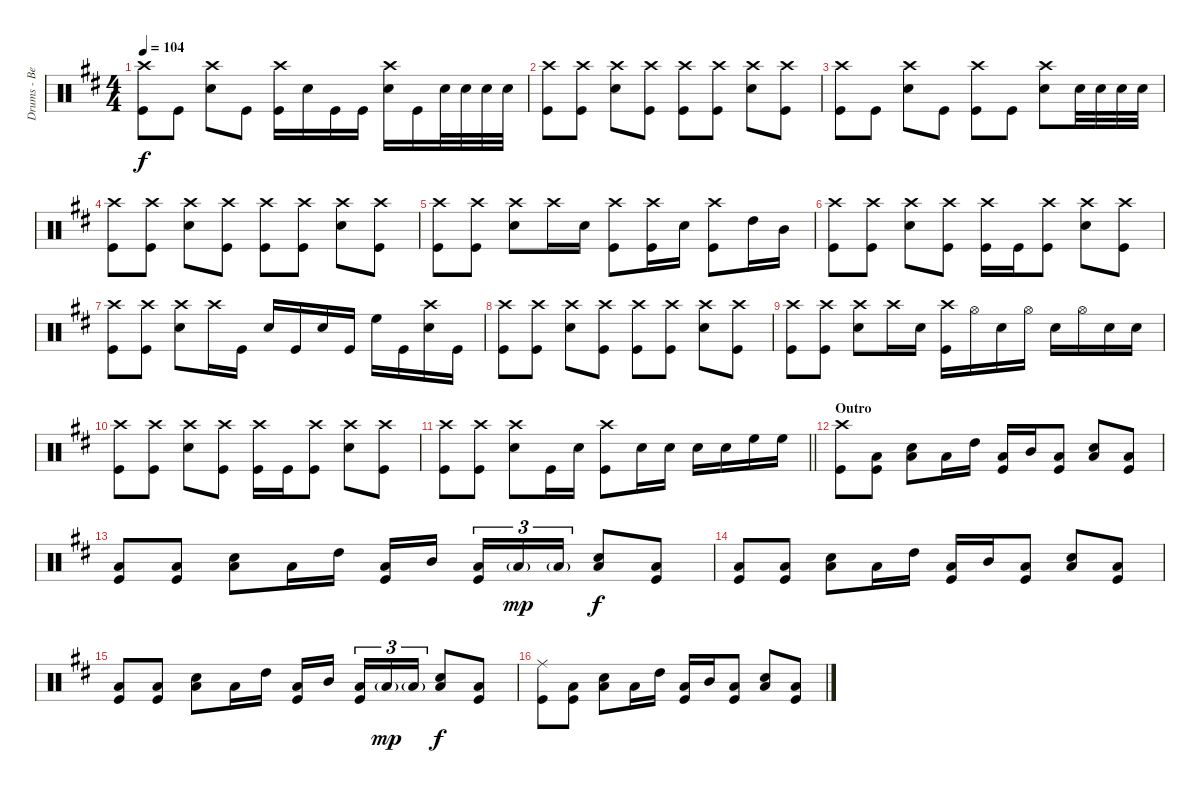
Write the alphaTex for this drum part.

\track ("Drums - Ben Johnston" "Drums - Be") {instrument percussion}
\staff {score}
\articulation defaults
\ts (4 4)
\tempo 104
\clef neutral
\ks d
("Crash high (hit)" "Kick (hit)").8{dy f} "Kick (hit)".8 ("Crash high (hit)" "Snare (hit) 2").8 "Kick (hit)".8 ("Crash high (hit)" "Kick (hit)").16 "Snare (hit) 2".16 "Kick (hit)".16 "Kick (hit)".16 ("Crash high (hit)" "Snare (hit) 2").16 "Kick (hit)".16 "Snare (hit) 2".32 "Snare (hit) 2".32 "Snare (hit) 2".32 "Snare (hit) 2".32 |
("Crash high (hit)" "Kick (hit)").8 ("Crash high (hit)" "Kick (hit)").8 ("Crash high (hit)" "Snare (hit) 2").8 ("Crash high (hit)" "Kick (hit)").8 ("Crash high (hit)" "Kick (hit)").8 ("Crash high (hit)" "Kick (hit)").8 ("Crash high (hit)" "Snare (hit) 2").8 ("Crash high (hit)" "Kick (hit)").8 |
("Crash high (hit)" "Kick (hit)").8 "Kick (hit)".8 ("Crash high (hit)" "Snare (hit) 2").8 "Kick (hit)".8 ("Crash high (hit)" "Kick (hit)").8 "Kick (hit)".8 ("Crash high (hit)" "Snare (hit) 2").8 "Snare (hit) 2".32 "Snare (hit) 2".32 "Snare (hit) 2".32 "Snare (hit) 2".32 |
("Crash high (hit)" "Kick (hit)").8 ("Crash high (hit)" "Kick (hit)").8 ("Crash high (hit)" "Snare (hit) 2").8 ("Crash high (hit)" "Kick (hit)").8 ("Crash high (hit)" "Kick (hit)").8 ("Crash high (hit)" "Kick (hit)").8 ("Crash high (hit)" "Snare (hit) 2").8 ("Crash high (hit)" "Kick (hit)").8 |
("Crash high (hit)" "Kick (hit)").8 ("Crash high (hit)" "Kick (hit)").8 ("Crash high (hit)" "Snare (hit) 2").8 "Crash high (hit)".16 "Snare (hit) 2".16 ("Crash high (hit)" "Kick (hit)").8 ("Crash high (hit)" "Kick (hit)").16 "Snare (hit) 2".16 ("Crash high (hit)" "Kick (hit)").8 "High Tom (hit)".16 "Mid Tom (hit)".16 |
("Crash high (hit)" "Kick (hit)").8 ("Crash high (hit)" "Kick (hit)").8 ("Crash high (hit)" "Snare (hit) 2").8 ("Crash high (hit)" "Kick (hit)").8 ("Crash high (hit)" "Kick (hit)").16 "Kick (hit)".16 ("Crash high (hit)" "Kick (hit)").8 ("Crash high (hit)" "Snare (hit) 2").8 ("Crash high (hit)" "Kick (hit)").8 |
("Crash high (hit)" "Kick (hit)").8 ("Crash high (hit)" "Kick (hit)").8 ("Crash high (hit)" "Snare (hit) 2").8 "Crash high (hit)".16 "Kick (hit)".16 "Snare (hit) 2".16 "Kick (hit)".16 "Snare (hit) 2".16 "Kick (hit)".16 "High Floor Tom (hit)".16 "Kick (hit)".16 ("Crash high (hit)" "Snare (hit) 2").16 "Kick (hit)".16 |
("Crash high (hit)" "Kick (hit)").8 ("Crash high (hit)" "Kick (hit)").8 ("Crash high (hit)" "Snare (hit) 2").8 ("Crash high (hit)" "Kick (hit)").8 ("Crash high (hit)" "Kick (hit)").8 ("Crash high (hit)" "Kick (hit)").8 ("Crash high (hit)" "Snare (hit) 2").8 ("Crash high (hit)" "Kick (hit)").8 |
("Crash high (hit)" "Kick (hit)").8 ("Crash high (hit)" "Kick (hit)").8 ("Crash high (hit)" "Snare (hit) 2").8 "Crash high (hit)".16 "Snare (hit) 2".16 ("Crash high (hit)" "Kick (hit)").16 "Hi-Hat (open)".16 "Snare (hit) 2".16 "Hi-Hat (open)".16 "Snare (hit) 2".16 "Hi-Hat (open)".16 "Snare (hit) 2".16 "Snare (hit) 2".16 |
("Crash high (hit)" "Kick (hit)").8 ("Crash high (hit)" "Kick (hit)").8 ("Crash high (hit)" "Snare (hit) 2").8 ("Crash high (hit)" "Kick (hit)").8 ("Crash high (hit)" "Kick (hit)").16 "Kick (hit)".16 ("Crash high (hit)" "Kick (hit)").8 ("Crash high (hit)" "Snare (hit) 2").8 ("Crash high (hit)" "Kick (hit)").8 |
\barLineRight lightlight
("Crash high (hit)" "Kick (hit)").8 ("Crash high (hit)" "Kick (hit)").8 ("Crash high (hit)" "Snare (hit) 2").8 "Kick (hit)".16 "Snare (hit) 2".16 ("Crash high (hit)" "Kick (hit)").8 "Snare (hit) 2".16 "Snare (hit) 2".16 "Snare (hit) 2".16 "Snare (hit) 2".16 "High Floor Tom (hit)".16 "High Floor Tom (hit)".16 |
\section ("" "Outro")
("Crash high (hit)" "Kick (hit)").8 ("Low Tom (hit)" "Kick (hit)").8 ("Low Tom (hit)" "Snare (hit) 2").8 "Low Tom (hit)".16 "High Tom (hit)".16 ("Low Tom (hit)" "Kick (hit)").16 "Mid Tom (hit)".16 ("Low Tom (hit)" "Kick (hit)").8 ("Low Tom (hit)" "Snare (hit) 2").8 ("Low Tom (hit)" "Kick (hit)").8 |
("Low Tom (hit)" "Kick (hit)").8 ("Low Tom (hit)" "Kick (hit)").8 ("Low Tom (hit)" "Snare (hit) 2").8 "Low Tom (hit)".16 "High Tom (hit)".16 ("Low Tom (hit)" "Kick (hit)").16 "Mid Tom (hit)".16{beam splitsecondary} ("Low Tom (hit)" "Kick (hit)").16{tu (3 2)} "Low Tom (hit)"{g}.16{tu (3 2) dy mp} "Low Tom (hit)"{g}.16{tu (3 2)} ("Low Tom (hit)" "Snare (hit) 2").8{dy f} ("Low Tom (hit)" "Kick (hit)").8 |
("Low Tom (hit)" "Kick (hit)").8 ("Low Tom (hit)" "Kick (hit)").8 ("Low Tom (hit)" "Snare (hit) 2").8 "Low Tom (hit)".16 "High Tom (hit)".16 ("Low Tom (hit)" "Kick (hit)").16 "Mid Tom (hit)".16 ("Low Tom (hit)" "Kick (hit)").8 ("Low Tom (hit)" "Snare (hit) 2").8 ("Low Tom (hit)" "Kick (hit)").8 |
("Low Tom (hit)" "Kick (hit)").8 ("Low Tom (hit)" "Kick (hit)").8 ("Low Tom (hit)" "Snare (hit) 2").8 "Low Tom (hit)".16 "High Tom (hit)".16 ("Low Tom (hit)" "Kick (hit)").16 "Mid Tom (hit)".16{beam splitsecondary} ("Low Tom (hit)" "Kick (hit)").16{tu (3 2)} "Low Tom (hit)"{g}.16{tu (3 2) dy mp} "Low Tom (hit)"{g}.16{tu (3 2)} ("Low Tom (hit)" "Snare (hit) 2").8{dy f} ("Low Tom (hit)" "Kick (hit)").8 |
("Ride (middle)" "Kick (hit)").8 ("Low Tom (hit)" "Kick (hit)").8 ("Low Tom (hit)" "Snare (hit) 2").8 "Low Tom (hit)".16 "High Tom (hit)".16 ("Low Tom (hit)" "Kick (hit)").16 "Mid Tom (hit)".16 ("Low Tom (hit)" "Kick (hit)").8 ("Low Tom (hit)" "Snare (hit) 2").8 ("Low Tom (hit)" "Kick (hit)").8
